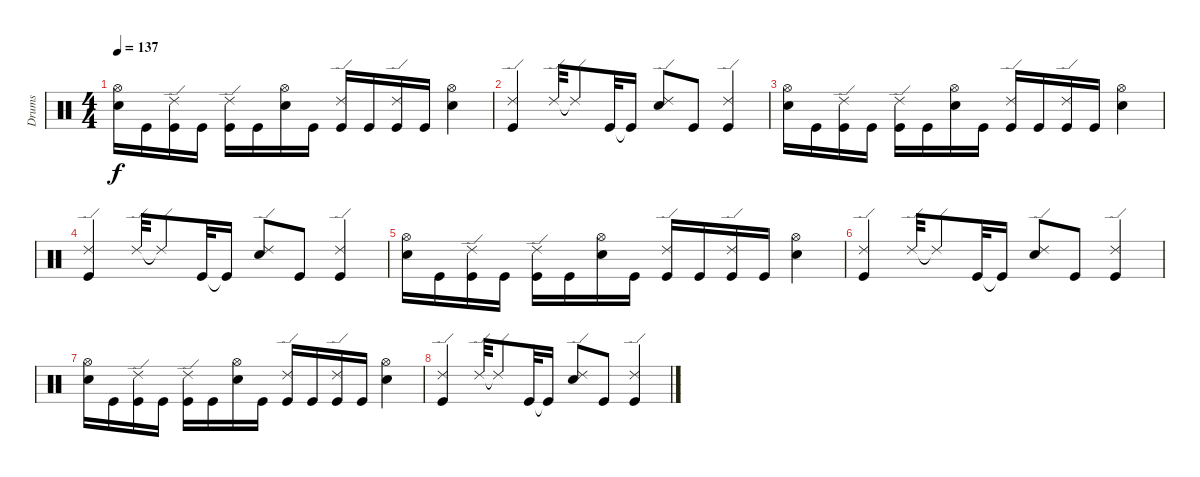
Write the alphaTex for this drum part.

\track ("Drums" "Drums") {instrument percussion}
\staff {score}
\articulation defaults
\ts (4 4)
\tempo 137
\clef neutral
\ks c
("Hi-Hat (open)" "Snare (hit) 2").16{dy f} "Kick (hit)".16 ("Ride (edge) 2" "Kick (hit)").16 "Kick (hit)".16 ("Ride (edge) 2" "Kick (hit)").16 "Kick (hit)".16 ("Hi-Hat (open)" "Snare (hit) 2").16 "Kick (hit)".16 ("Ride (edge) 2" "Kick (hit)").16 "Kick (hit)".16 ("Ride (edge) 2" "Kick (hit)").16 "Kick (hit)".16 ("Hi-Hat (open)" "Snare (hit) 2").4 |
("Ride (edge) 2" "Kick (hit)").4 "Ride (edge) 2".32 "Ride (edge) 2"{t}.8 "Kick (hit)".32 "Kick (hit)"{t}.16 ("Ride (edge) 2" "Snare (hit) 2").8 "Kick (hit)".8 ("Ride (edge) 2" "Kick (hit)").4 |
("Hi-Hat (open)" "Snare (hit) 2").16 "Kick (hit)".16 ("Ride (edge) 2" "Kick (hit)").16 "Kick (hit)".16 ("Ride (edge) 2" "Kick (hit)").16 "Kick (hit)".16 ("Hi-Hat (open)" "Snare (hit) 2").16 "Kick (hit)".16 ("Ride (edge) 2" "Kick (hit)").16 "Kick (hit)".16 ("Ride (edge) 2" "Kick (hit)").16 "Kick (hit)".16 ("Hi-Hat (open)" "Snare (hit) 2").4 |
("Ride (edge) 2" "Kick (hit)").4 "Ride (edge) 2".32 "Ride (edge) 2"{t}.8 "Kick (hit)".32 "Kick (hit)"{t}.16 ("Ride (edge) 2" "Snare (hit) 2").8 "Kick (hit)".8 ("Ride (edge) 2" "Kick (hit)").4 |
("Hi-Hat (open)" "Snare (hit) 2").16 "Kick (hit)".16 ("Ride (edge) 2" "Kick (hit)").16 "Kick (hit)".16 ("Ride (edge) 2" "Kick (hit)").16 "Kick (hit)".16 ("Hi-Hat (open)" "Snare (hit) 2").16 "Kick (hit)".16 ("Ride (edge) 2" "Kick (hit)").16 "Kick (hit)".16 ("Ride (edge) 2" "Kick (hit)").16 "Kick (hit)".16 ("Hi-Hat (open)" "Snare (hit) 2").4 |
("Ride (edge) 2" "Kick (hit)").4 "Ride (edge) 2".32 "Ride (edge) 2"{t}.8 "Kick (hit)".32 "Kick (hit)"{t}.16 ("Ride (edge) 2" "Snare (hit) 2").8 "Kick (hit)".8 ("Ride (edge) 2" "Kick (hit)").4 |
("Hi-Hat (open)" "Snare (hit) 2").16 "Kick (hit)".16 ("Ride (edge) 2" "Kick (hit)").16 "Kick (hit)".16 ("Ride (edge) 2" "Kick (hit)").16 "Kick (hit)".16 ("Hi-Hat (open)" "Snare (hit) 2").16 "Kick (hit)".16 ("Ride (edge) 2" "Kick (hit)").16 "Kick (hit)".16 ("Ride (edge) 2" "Kick (hit)").16 "Kick (hit)".16 ("Hi-Hat (open)" "Snare (hit) 2").4 |
("Ride (edge) 2" "Kick (hit)").4 "Ride (edge) 2".32 "Ride (edge) 2"{t}.8 "Kick (hit)".32 "Kick (hit)"{t}.16 ("Ride (edge) 2" "Snare (hit) 2").8 "Kick (hit)".8 ("Ride (edge) 2" "Kick (hit)").4
